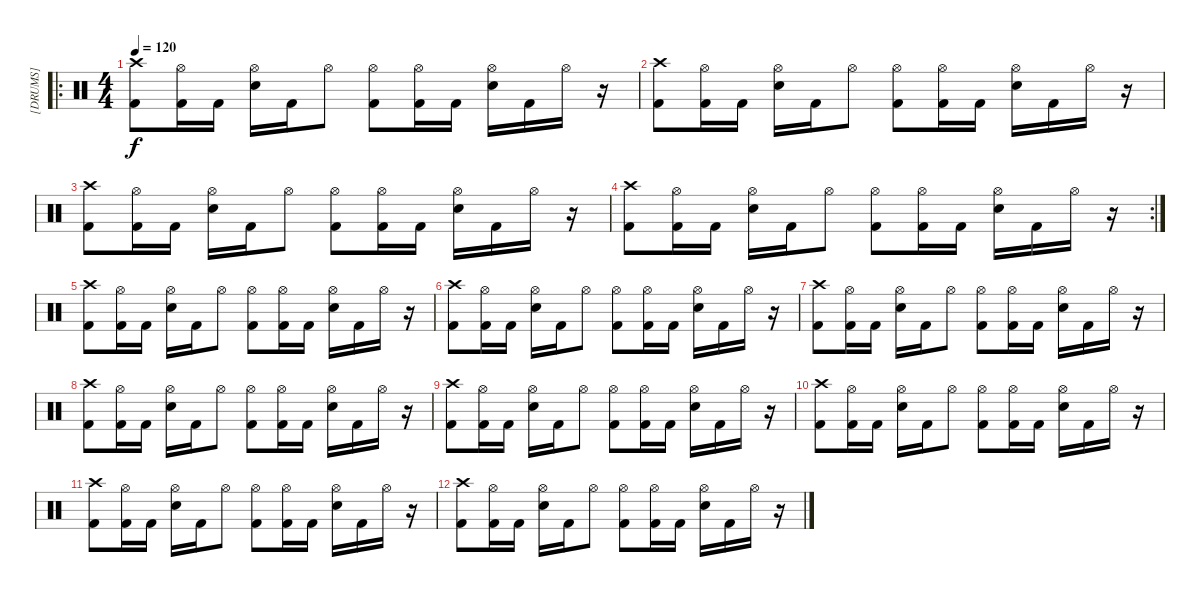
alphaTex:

\track ("[DRUMS]" "[DRUMS]") {instrument percussion}
\staff {score}
\articulation defaults
\ro
\ts (4 4)
\tempo 120
\clef neutral
\ks c
("Crash high (hit)" "Kick (hit) 2").8{dy f} ("Hi-Hat (open)" "Kick (hit) 2").16 "Kick (hit) 2".16 ("Hi-Hat (open)" "Electric Snare (hit)").16 "Kick (hit) 2".16 "Hi-Hat (open)".8 ("Hi-Hat (open)" "Kick (hit) 2").8 ("Hi-Hat (open)" "Kick (hit) 2").16 "Kick (hit) 2".16 ("Hi-Hat (open)" "Electric Snare (hit)").16 "Kick (hit) 2".16 "Hi-Hat (open)".16 r.16 |
("Crash high (hit)" "Kick (hit) 2").8 ("Hi-Hat (open)" "Kick (hit) 2").16 "Kick (hit) 2".16 ("Hi-Hat (open)" "Electric Snare (hit)").16 "Kick (hit) 2".16 "Hi-Hat (open)".8 ("Hi-Hat (open)" "Kick (hit) 2").8 ("Hi-Hat (open)" "Kick (hit) 2").16 "Kick (hit) 2".16 ("Hi-Hat (open)" "Electric Snare (hit)").16 "Kick (hit) 2".16 "Hi-Hat (open)".16 r.16 |
("Crash high (hit)" "Kick (hit) 2").8 ("Hi-Hat (open)" "Kick (hit) 2").16 "Kick (hit) 2".16 ("Hi-Hat (open)" "Electric Snare (hit)").16 "Kick (hit) 2".16 "Hi-Hat (open)".8 ("Hi-Hat (open)" "Kick (hit) 2").8 ("Hi-Hat (open)" "Kick (hit) 2").16 "Kick (hit) 2".16 ("Hi-Hat (open)" "Electric Snare (hit)").16 "Kick (hit) 2".16 "Hi-Hat (open)".16 r.16 |
\rc 2
("Crash high (hit)" "Kick (hit) 2").8 ("Hi-Hat (open)" "Kick (hit) 2").16 "Kick (hit) 2".16 ("Hi-Hat (open)" "Electric Snare (hit)").16 "Kick (hit) 2".16 "Hi-Hat (open)".8 ("Hi-Hat (open)" "Kick (hit) 2").8 ("Hi-Hat (open)" "Kick (hit) 2").16 "Kick (hit) 2".16 ("Hi-Hat (open)" "Electric Snare (hit)").16 "Kick (hit) 2".16 "Hi-Hat (open)".16 r.16 |
("Crash high (hit)" "Kick (hit) 2").8 ("Hi-Hat (open)" "Kick (hit) 2").16 "Kick (hit) 2".16 ("Hi-Hat (open)" "Electric Snare (hit)").16 "Kick (hit) 2".16 "Hi-Hat (open)".8 ("Hi-Hat (open)" "Kick (hit) 2").8 ("Hi-Hat (open)" "Kick (hit) 2").16 "Kick (hit) 2".16 ("Hi-Hat (open)" "Electric Snare (hit)").16 "Kick (hit) 2".16 "Hi-Hat (open)".16 r.16 |
("Crash high (hit)" "Kick (hit) 2").8 ("Hi-Hat (open)" "Kick (hit) 2").16 "Kick (hit) 2".16 ("Hi-Hat (open)" "Electric Snare (hit)").16 "Kick (hit) 2".16 "Hi-Hat (open)".8 ("Hi-Hat (open)" "Kick (hit) 2").8 ("Hi-Hat (open)" "Kick (hit) 2").16 "Kick (hit) 2".16 ("Hi-Hat (open)" "Electric Snare (hit)").16 "Kick (hit) 2".16 "Hi-Hat (open)".16 r.16 |
("Crash high (hit)" "Kick (hit) 2").8 ("Hi-Hat (open)" "Kick (hit) 2").16 "Kick (hit) 2".16 ("Hi-Hat (open)" "Electric Snare (hit)").16 "Kick (hit) 2".16 "Hi-Hat (open)".8 ("Hi-Hat (open)" "Kick (hit) 2").8 ("Hi-Hat (open)" "Kick (hit) 2").16 "Kick (hit) 2".16 ("Hi-Hat (open)" "Electric Snare (hit)").16 "Kick (hit) 2".16 "Hi-Hat (open)".16 r.16 |
("Crash high (hit)" "Kick (hit) 2").8 ("Hi-Hat (open)" "Kick (hit) 2").16 "Kick (hit) 2".16 ("Hi-Hat (open)" "Electric Snare (hit)").16 "Kick (hit) 2".16 "Hi-Hat (open)".8 ("Hi-Hat (open)" "Kick (hit) 2").8 ("Hi-Hat (open)" "Kick (hit) 2").16 "Kick (hit) 2".16 ("Hi-Hat (open)" "Electric Snare (hit)").16 "Kick (hit) 2".16 "Hi-Hat (open)".16 r.16 |
("Crash high (hit)" "Kick (hit) 2").8 ("Hi-Hat (open)" "Kick (hit) 2").16 "Kick (hit) 2".16 ("Hi-Hat (open)" "Electric Snare (hit)").16 "Kick (hit) 2".16 "Hi-Hat (open)".8 ("Hi-Hat (open)" "Kick (hit) 2").8 ("Hi-Hat (open)" "Kick (hit) 2").16 "Kick (hit) 2".16 ("Hi-Hat (open)" "Electric Snare (hit)").16 "Kick (hit) 2".16 "Hi-Hat (open)".16 r.16 |
("Crash high (hit)" "Kick (hit) 2").8 ("Hi-Hat (open)" "Kick (hit) 2").16 "Kick (hit) 2".16 ("Hi-Hat (open)" "Electric Snare (hit)").16 "Kick (hit) 2".16 "Hi-Hat (open)".8 ("Hi-Hat (open)" "Kick (hit) 2").8 ("Hi-Hat (open)" "Kick (hit) 2").16 "Kick (hit) 2".16 ("Hi-Hat (open)" "Electric Snare (hit)").16 "Kick (hit) 2".16 "Hi-Hat (open)".16 r.16 |
("Crash high (hit)" "Kick (hit) 2").8 ("Hi-Hat (open)" "Kick (hit) 2").16 "Kick (hit) 2".16 ("Hi-Hat (open)" "Electric Snare (hit)").16 "Kick (hit) 2".16 "Hi-Hat (open)".8 ("Hi-Hat (open)" "Kick (hit) 2").8 ("Hi-Hat (open)" "Kick (hit) 2").16 "Kick (hit) 2".16 ("Hi-Hat (open)" "Electric Snare (hit)").16 "Kick (hit) 2".16 "Hi-Hat (open)".16 r.16 |
("Crash high (hit)" "Kick (hit) 2").8 ("Hi-Hat (open)" "Kick (hit) 2").16 "Kick (hit) 2".16 ("Hi-Hat (open)" "Electric Snare (hit)").16 "Kick (hit) 2".16 "Hi-Hat (open)".8 ("Hi-Hat (open)" "Kick (hit) 2").8 ("Hi-Hat (open)" "Kick (hit) 2").16 "Kick (hit) 2".16 ("Hi-Hat (open)" "Electric Snare (hit)").16 "Kick (hit) 2".16 "Hi-Hat (open)".16 r.16
